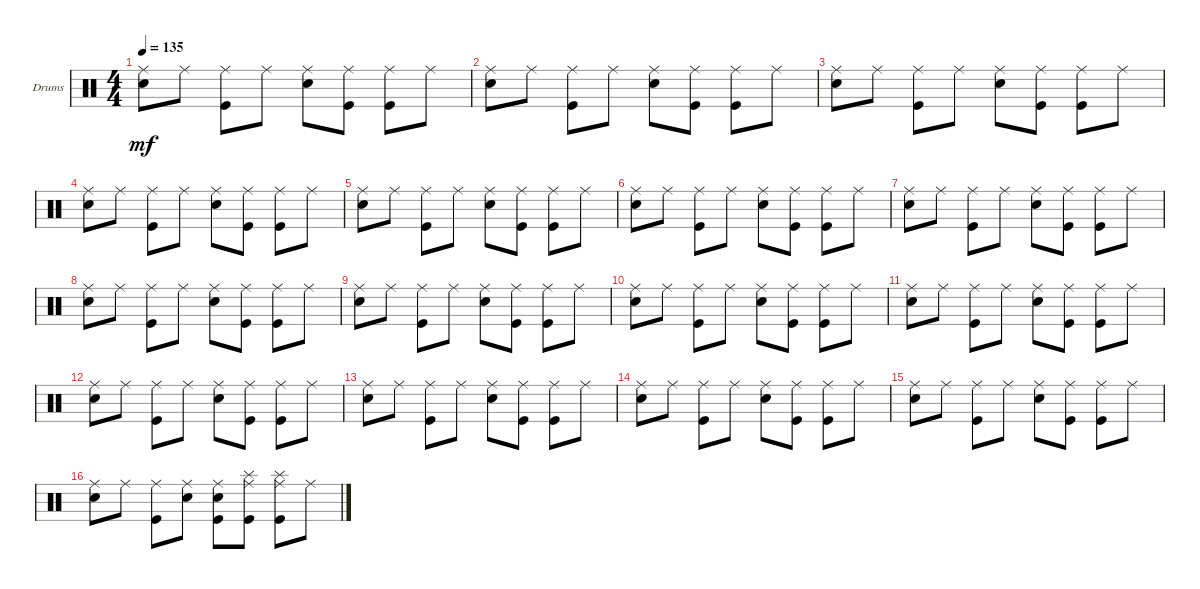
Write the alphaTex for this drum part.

\bracketExtendMode groupsimilarinstruments
\firstSystemTrackNameOrientation horizontal
\otherSystemsTrackNameOrientation horizontal
\track ("Drumkit" "Drums") {instrument percussion}
\staff {score}
\articulation defaults
\ts (4 4)
\tempo 135
\clef neutral
\ks c
("Snare (hit) 2" "Ride (middle)").8{dy mf} "Ride (middle)".8 ("Kick (hit)" "Ride (middle)").8 "Ride (middle)".8 ("Snare (hit) 2" "Ride (middle)").8 ("Kick (hit)" "Ride (middle)").8 ("Kick (hit)" "Ride (middle)").8 "Ride (middle)".8 |
("Snare (hit) 2" "Ride (middle)").8 "Ride (middle)".8 ("Kick (hit)" "Ride (middle)").8 "Ride (middle)".8 ("Snare (hit) 2" "Ride (middle)").8 ("Kick (hit)" "Ride (middle)").8 ("Kick (hit)" "Ride (middle)").8 "Ride (middle)".8 |
("Snare (hit) 2" "Ride (middle)").8 "Ride (middle)".8 ("Kick (hit)" "Ride (middle)").8 "Ride (middle)".8 ("Snare (hit) 2" "Ride (middle)").8 ("Kick (hit)" "Ride (middle)").8 ("Kick (hit)" "Ride (middle)").8 "Ride (middle)".8 |
("Snare (hit) 2" "Ride (middle)").8 "Ride (middle)".8 ("Kick (hit)" "Ride (middle)").8 "Ride (middle)".8 ("Snare (hit) 2" "Ride (middle)").8 ("Kick (hit)" "Ride (middle)").8 ("Kick (hit)" "Ride (middle)").8 "Ride (middle)".8 |
("Snare (hit) 2" "Ride (middle)").8 "Ride (middle)".8 ("Kick (hit)" "Ride (middle)").8 "Ride (middle)".8 ("Snare (hit) 2" "Ride (middle)").8 ("Kick (hit)" "Ride (middle)").8 ("Kick (hit)" "Ride (middle)").8 "Ride (middle)".8 |
("Snare (hit) 2" "Ride (middle)").8 "Ride (middle)".8 ("Kick (hit)" "Ride (middle)").8 "Ride (middle)".8 ("Snare (hit) 2" "Ride (middle)").8 ("Kick (hit)" "Ride (middle)").8 ("Kick (hit)" "Ride (middle)").8 "Ride (middle)".8 |
("Snare (hit) 2" "Ride (middle)").8 "Ride (middle)".8 ("Kick (hit)" "Ride (middle)").8 "Ride (middle)".8 ("Snare (hit) 2" "Ride (middle)").8 ("Kick (hit)" "Ride (middle)").8 ("Kick (hit)" "Ride (middle)").8 "Ride (middle)".8 |
("Snare (hit) 2" "Ride (middle)").8 "Ride (middle)".8 ("Kick (hit)" "Ride (middle)").8 "Ride (middle)".8 ("Snare (hit) 2" "Ride (middle)").8 ("Kick (hit)" "Ride (middle)").8 ("Kick (hit)" "Ride (middle)").8 "Ride (middle)".8 |
("Snare (hit) 2" "Ride (middle)").8 "Ride (middle)".8 ("Kick (hit)" "Ride (middle)").8 "Ride (middle)".8 ("Snare (hit) 2" "Ride (middle)").8 ("Kick (hit)" "Ride (middle)").8 ("Kick (hit)" "Ride (middle)").8 "Ride (middle)".8 |
("Snare (hit) 2" "Ride (middle)").8 "Ride (middle)".8 ("Kick (hit)" "Ride (middle)").8 "Ride (middle)".8 ("Snare (hit) 2" "Ride (middle)").8 ("Kick (hit)" "Ride (middle)").8 ("Kick (hit)" "Ride (middle)").8 "Ride (middle)".8 |
("Snare (hit) 2" "Ride (middle)").8 "Ride (middle)".8 ("Kick (hit)" "Ride (middle)").8 "Ride (middle)".8 ("Snare (hit) 2" "Ride (middle)").8 ("Kick (hit)" "Ride (middle)").8 ("Kick (hit)" "Ride (middle)").8 "Ride (middle)".8 |
("Snare (hit) 2" "Ride (middle)").8 "Ride (middle)".8 ("Kick (hit)" "Ride (middle)").8 "Ride (middle)".8 ("Snare (hit) 2" "Ride (middle)").8 ("Kick (hit)" "Ride (middle)").8 ("Kick (hit)" "Ride (middle)").8 "Ride (middle)".8 |
("Snare (hit) 2" "Ride (middle)").8 "Ride (middle)".8 ("Kick (hit)" "Ride (middle)").8 "Ride (middle)".8 ("Snare (hit) 2" "Ride (middle)").8 ("Kick (hit)" "Ride (middle)").8 ("Kick (hit)" "Ride (middle)").8 "Ride (middle)".8 |
("Snare (hit) 2" "Ride (middle)").8 "Ride (middle)".8 ("Kick (hit)" "Ride (middle)").8 "Ride (middle)".8 ("Snare (hit) 2" "Ride (middle)").8 ("Kick (hit)" "Ride (middle)").8 ("Kick (hit)" "Ride (middle)").8 "Ride (middle)".8 |
("Snare (hit) 2" "Ride (middle)").8 "Ride (middle)".8 ("Kick (hit)" "Ride (middle)").8 "Ride (middle)".8 ("Snare (hit) 2" "Ride (middle)").8 ("Kick (hit)" "Ride (middle)").8 ("Kick (hit)" "Ride (middle)").8 "Ride (middle)".8 |
("Snare (hit) 2" "Ride (middle)").8 "Ride (middle)".8 ("Kick (hit)" "Ride (middle)").8 ("Snare (hit) 2" "Ride (middle)").8 ("Snare (hit) 2" "Ride (middle)" "Kick (hit)").8 ("Ride (middle)" "Kick (hit)" "Splash (hit)").8 ("Ride (middle)" "Kick (hit)" "Splash (hit)").8 "Ride (middle)".8
